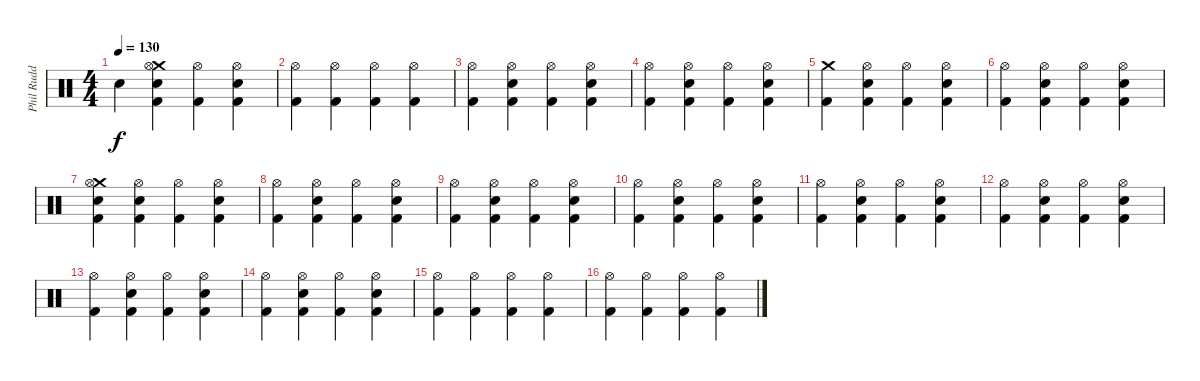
\track ("Phil Rudd" "Phil Rudd") {instrument percussion}
\staff {score}
\articulation defaults
\ts (4 4)
\tempo 130
\clef neutral
\ks c "Snare (hit)"{x}.4{dy f}
("Kick (hit) 2" "Crash medium (hit)" "Hi-Hat (open)" "Snare (hit) 2").4 ("Kick (hit) 2" "Hi-Hat (open)").4 ("Kick (hit) 2" "Hi-Hat (open)" "Snare (hit) 2").4 |
("Kick (hit) 2" "Hi-Hat (open)").4 ("Kick (hit) 2" "Hi-Hat (open)").4 ("Kick (hit) 2" "Hi-Hat (open)").4 ("Kick (hit) 2" "Hi-Hat (open)").4 |
("Kick (hit) 2" "Hi-Hat (open)").4 ("Kick (hit) 2" "Hi-Hat (open)" "Snare (hit) 2").4 ("Kick (hit) 2" "Hi-Hat (open)").4 ("Kick (hit) 2" "Hi-Hat (open)" "Snare (hit) 2").4 |
("Kick (hit) 2" "Hi-Hat (open)").4 ("Kick (hit) 2" "Hi-Hat (open)" "Snare (hit) 2").4 ("Kick (hit) 2" "Hi-Hat (open)").4 ("Kick (hit) 2" "Hi-Hat (open)" "Snare (hit) 2").4 |
("Kick (hit) 2" "Crash medium (hit)").4 ("Kick (hit) 2" "Hi-Hat (open)" "Snare (hit) 2").4 ("Kick (hit) 2" "Hi-Hat (open)").4 ("Kick (hit) 2" "Hi-Hat (open)" "Snare (hit) 2").4 |
("Kick (hit) 2" "Hi-Hat (open)").4 ("Kick (hit) 2" "Hi-Hat (open)" "Snare (hit) 2").4 ("Kick (hit) 2" "Hi-Hat (open)").4 ("Kick (hit) 2" "Hi-Hat (open)" "Snare (hit) 2").4 |
("Kick (hit) 2" "Crash medium (hit)" "Hi-Hat (open)" "Snare (hit) 2").4 ("Kick (hit) 2" "Hi-Hat (open)" "Snare (hit) 2").4 ("Kick (hit) 2" "Hi-Hat (open)").4 ("Kick (hit) 2" "Hi-Hat (open)" "Snare (hit) 2").4 |
("Kick (hit) 2" "Hi-Hat (open)").4 ("Kick (hit) 2" "Hi-Hat (open)" "Snare (hit) 2").4 ("Kick (hit) 2" "Hi-Hat (open)").4 ("Kick (hit) 2" "Hi-Hat (open)" "Snare (hit) 2").4 |
("Kick (hit) 2" "Hi-Hat (open)").4 ("Kick (hit) 2" "Hi-Hat (open)" "Snare (hit) 2").4 ("Kick (hit) 2" "Hi-Hat (open)").4 ("Kick (hit) 2" "Hi-Hat (open)" "Snare (hit) 2").4 |
("Kick (hit) 2" "Hi-Hat (open)").4 ("Kick (hit) 2" "Hi-Hat (open)" "Snare (hit) 2").4 ("Kick (hit) 2" "Hi-Hat (open)").4 ("Kick (hit) 2" "Hi-Hat (open)" "Snare (hit) 2").4 |
("Kick (hit) 2" "Hi-Hat (open)").4 ("Kick (hit) 2" "Hi-Hat (open)" "Snare (hit) 2").4 ("Kick (hit) 2" "Hi-Hat (open)").4 ("Kick (hit) 2" "Hi-Hat (open)" "Snare (hit) 2").4 |
("Kick (hit) 2" "Hi-Hat (open)").4 ("Kick (hit) 2" "Hi-Hat (open)" "Snare (hit) 2").4 ("Kick (hit) 2" "Hi-Hat (open)").4 ("Kick (hit) 2" "Hi-Hat (open)" "Snare (hit) 2").4 |
("Kick (hit) 2" "Hi-Hat (open)").4 ("Kick (hit) 2" "Hi-Hat (open)" "Snare (hit) 2").4 ("Kick (hit) 2" "Hi-Hat (open)").4 ("Kick (hit) 2" "Hi-Hat (open)" "Snare (hit) 2").4 |
("Kick (hit) 2" "Hi-Hat (open)").4 ("Kick (hit) 2" "Hi-Hat (open)" "Snare (hit) 2").4 ("Kick (hit) 2" "Hi-Hat (open)").4 ("Kick (hit) 2" "Hi-Hat (open)" "Snare (hit) 2").4 |
("Kick (hit) 2" "Hi-Hat (open)").4 ("Kick (hit) 2" "Hi-Hat (open)").4 ("Kick (hit) 2" "Hi-Hat (open)").4 ("Kick (hit) 2" "Hi-Hat (open)").4 |
("Kick (hit) 2" "Hi-Hat (open)").4 ("Kick (hit) 2" "Hi-Hat (open)").4 ("Kick (hit) 2" "Hi-Hat (open)").4 ("Kick (hit) 2" "Hi-Hat (open)").4
